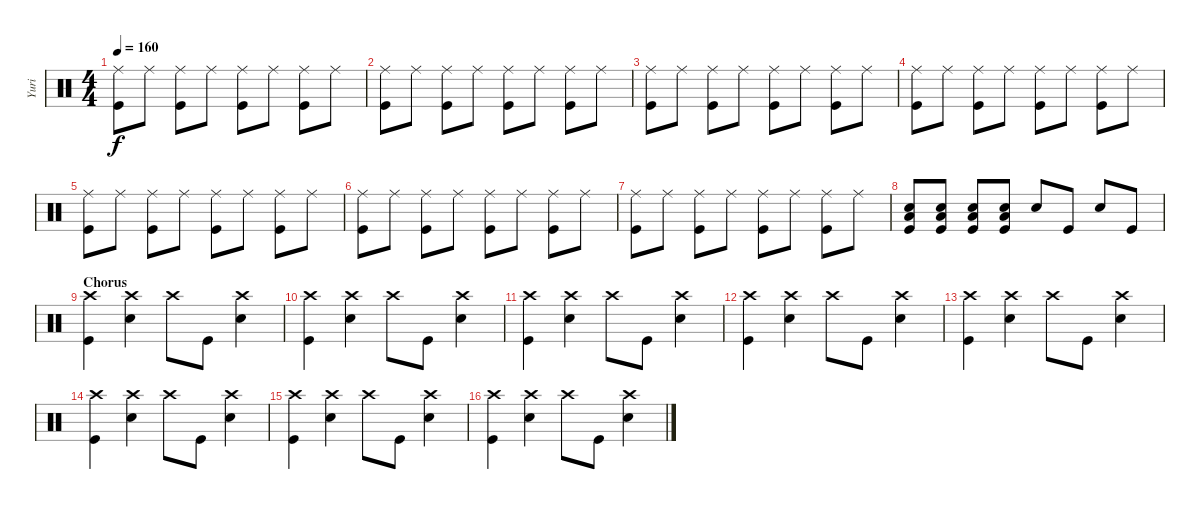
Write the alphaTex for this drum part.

\track ("Yuri" "Yuri") {instrument percussion}
\staff {score}
\articulation defaults
\ts (4 4)
\tempo 160
\clef neutral
\ks c
("Ride (middle)" "Kick (hit)").8{dy f} "Ride (middle)".8 ("Ride (middle)" "Kick (hit)").8 "Ride (middle)".8 ("Ride (middle)" "Kick (hit)").8 "Ride (middle)".8 ("Ride (middle)" "Kick (hit)").8 "Ride (middle)".8 |
("Ride (middle)" "Kick (hit)").8 "Ride (middle)".8 ("Ride (middle)" "Kick (hit)").8 "Ride (middle)".8 ("Ride (middle)" "Kick (hit)").8 "Ride (middle)".8 ("Ride (middle)" "Kick (hit)").8 "Ride (middle)".8 |
("Ride (middle)" "Kick (hit)").8 "Ride (middle)".8 ("Ride (middle)" "Kick (hit)").8 "Ride (middle)".8 ("Ride (middle)" "Kick (hit)").8 "Ride (middle)".8 ("Ride (middle)" "Kick (hit)").8 "Ride (middle)".8 |
("Ride (middle)" "Kick (hit)").8 "Ride (middle)".8 ("Ride (middle)" "Kick (hit)").8 "Ride (middle)".8 ("Ride (middle)" "Kick (hit)").8 "Ride (middle)".8 ("Ride (middle)" "Kick (hit)").8 "Ride (middle)".8 |
("Ride (middle)" "Kick (hit)").8 "Ride (middle)".8 ("Ride (middle)" "Kick (hit)").8 "Ride (middle)".8 ("Ride (middle)" "Kick (hit)").8 "Ride (middle)".8 ("Ride (middle)" "Kick (hit)").8 "Ride (middle)".8 |
("Ride (middle)" "Kick (hit)").8 "Ride (middle)".8 ("Ride (middle)" "Kick (hit)").8 "Ride (middle)".8 ("Ride (middle)" "Kick (hit)").8 "Ride (middle)".8 ("Ride (middle)" "Kick (hit)").8 "Ride (middle)".8 |
("Ride (middle)" "Kick (hit)").8 "Ride (middle)".8 ("Ride (middle)" "Kick (hit)").8 "Ride (middle)".8 ("Ride (middle)" "Kick (hit)").8 "Ride (middle)".8 ("Ride (middle)" "Kick (hit)").8 "Ride (middle)".8 |
("Low Tom (hit)" "Snare (hit) 2" "Kick (hit)").8 ("Low Tom (hit)" "Snare (hit) 2" "Kick (hit)").8 ("Low Tom (hit)" "Snare (hit) 2" "Kick (hit)").8 ("Low Tom (hit)" "Snare (hit) 2" "Kick (hit)").8 "Snare (hit) 2".8 "Kick (hit)".8 "Snare (hit) 2".8 "Kick (hit)".8 |
\section ("" "Chorus")
("Crash high (hit)" "Kick (hit)").4 ("Crash high (hit)" "Snare (hit) 2").4 "Crash high (hit)".8 "Kick (hit)".8 ("Crash high (hit)" "Snare (hit) 2").4 |
("Crash high (hit)" "Kick (hit)").4 ("Crash high (hit)" "Snare (hit) 2").4 "Crash high (hit)".8 "Kick (hit)".8 ("Crash high (hit)" "Snare (hit) 2").4 |
("Crash high (hit)" "Kick (hit)").4 ("Crash high (hit)" "Snare (hit) 2").4 "Crash high (hit)".8 "Kick (hit)".8 ("Crash high (hit)" "Snare (hit) 2").4 |
("Crash high (hit)" "Kick (hit)").4 ("Crash high (hit)" "Snare (hit) 2").4 "Crash high (hit)".8 "Kick (hit)".8 ("Crash high (hit)" "Snare (hit) 2").4 |
("Crash high (hit)" "Kick (hit)").4 ("Crash high (hit)" "Snare (hit) 2").4 "Crash high (hit)".8 "Kick (hit)".8 ("Crash high (hit)" "Snare (hit) 2").4 |
("Crash high (hit)" "Kick (hit)").4 ("Crash high (hit)" "Snare (hit) 2").4 "Crash high (hit)".8 "Kick (hit)".8 ("Crash high (hit)" "Snare (hit) 2").4 |
("Crash high (hit)" "Kick (hit)").4 ("Crash high (hit)" "Snare (hit) 2").4 "Crash high (hit)".8 "Kick (hit)".8 ("Crash high (hit)" "Snare (hit) 2").4 |
("Crash high (hit)" "Kick (hit)").4 ("Crash high (hit)" "Snare (hit) 2").4 "Crash high (hit)".8 "Kick (hit)".8 ("Crash high (hit)" "Snare (hit) 2").4
